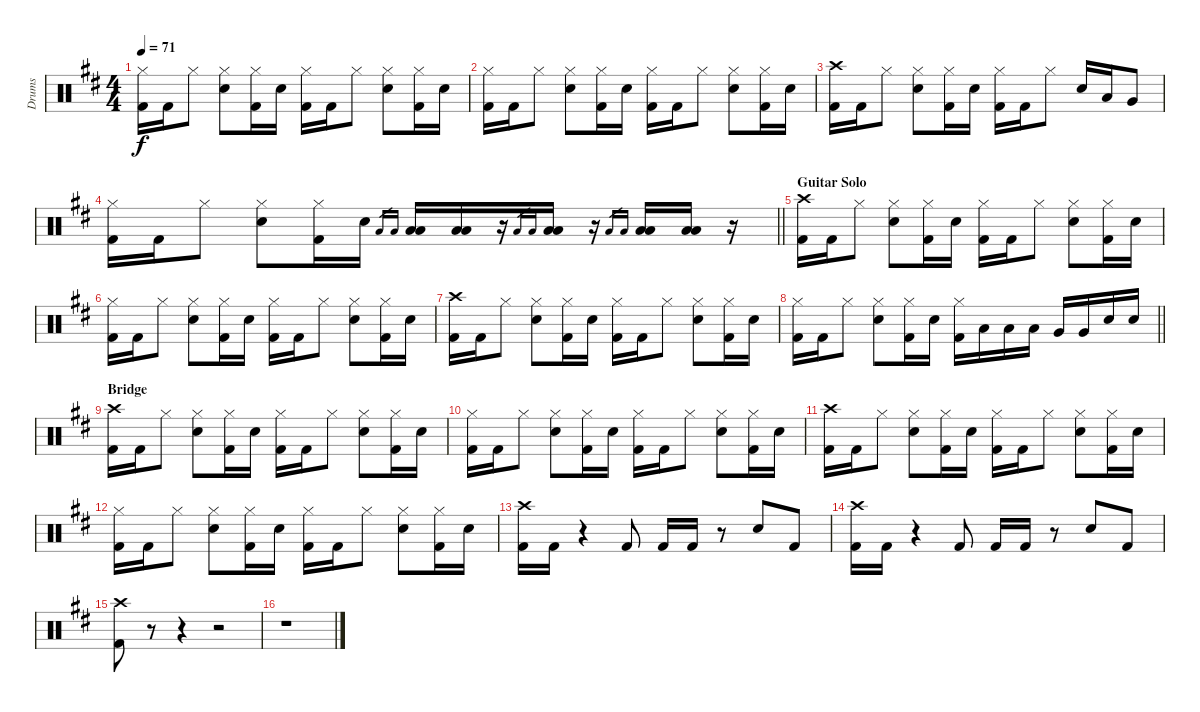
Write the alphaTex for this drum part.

\track ("Drums" "Drums") {instrument percussion}
\staff {score}
\articulation defaults
\ts (4 4)
\tempo 71
\clef neutral
\ks bminor
("Hi-Hat (closed)" "Kick (hit) 2").16{dy f} "Kick (hit) 2".16 "Hi-Hat (closed)".8 ("Hi-Hat (closed)" "Snare (hit) 2").8 ("Hi-Hat (closed)" "Kick (hit) 2").16 "Snare (hit) 2".16 ("Hi-Hat (closed)" "Kick (hit) 2").16 "Kick (hit) 2".16 "Hi-Hat (closed)".8 ("Hi-Hat (closed)" "Snare (hit) 2").8 ("Hi-Hat (closed)" "Kick (hit) 2").16 "Snare (hit) 2".16 |
("Hi-Hat (closed)" "Kick (hit) 2").16 "Kick (hit) 2".16 "Hi-Hat (closed)".8 ("Hi-Hat (closed)" "Snare (hit) 2").8 ("Hi-Hat (closed)" "Kick (hit) 2").16 "Snare (hit) 2".16 ("Hi-Hat (closed)" "Kick (hit) 2").16 "Kick (hit) 2".16 "Hi-Hat (closed)".8 ("Hi-Hat (closed)" "Snare (hit) 2").8 ("Hi-Hat (closed)" "Kick (hit) 2").16 "Snare (hit) 2".16 |
("Crash high (hit)" "Kick (hit) 2").16 "Kick (hit) 2".16 "Hi-Hat (closed)".8 ("Hi-Hat (closed)" "Snare (hit) 2").8 ("Hi-Hat (closed)" "Kick (hit) 2").16 "Snare (hit) 2".16 ("Hi-Hat (closed)" "Kick (hit) 2").16 "Kick (hit) 2".16 "Hi-Hat (closed)".8 "Snare (hit) 2".16 "Low Tom (hit)".16 "Very Low Tom (hit)".8 |
\barLineRight lightlight
("Hi-Hat (closed)" "Kick (hit) 2").16 "Kick (hit) 2".16 "Hi-Hat (closed)".8 ("Hi-Hat (closed)" "Snare (hit) 2").8 ("Hi-Hat (closed)" "Kick (hit) 2").16 "Snare (hit) 2".16 "Low Tom (hit)".16{gr} "Low Tom (hit)".16{gr} ("Low Tom (hit)" "Low Tom (hit)").16 ("Low Tom (hit)" "Low Tom (hit)").16 r.16 "Low Tom (hit)".16{gr} "Low Tom (hit)".16{gr} ("Low Tom (hit)" "Low Tom (hit)").16 r.16 "Low Tom (hit)".16{gr} "Low Tom (hit)".16{gr} ("Low Tom (hit)" "Low Tom (hit)").16 ("Low Tom (hit)" "Low Tom (hit)").16 r.16 |
\section ("" "Guitar Solo")
("Crash high (hit)" "Kick (hit) 2").16 "Kick (hit) 2".16 "Hi-Hat (closed)".8 ("Hi-Hat (closed)" "Snare (hit) 2").8 ("Hi-Hat (closed)" "Kick (hit) 2").16 "Snare (hit) 2".16 ("Hi-Hat (closed)" "Kick (hit) 2").16 "Kick (hit) 2".16 "Hi-Hat (closed)".8 ("Hi-Hat (closed)" "Snare (hit) 2").8 ("Hi-Hat (closed)" "Kick (hit) 2").16 "Snare (hit) 2".16 |
("Hi-Hat (closed)" "Kick (hit) 2").16 "Kick (hit) 2".16 "Hi-Hat (closed)".8 ("Hi-Hat (closed)" "Snare (hit) 2").8 ("Hi-Hat (closed)" "Kick (hit) 2").16 "Snare (hit) 2".16 ("Hi-Hat (closed)" "Kick (hit) 2").16 "Kick (hit) 2".16 "Hi-Hat (closed)".8 ("Hi-Hat (closed)" "Snare (hit) 2").8 ("Hi-Hat (closed)" "Kick (hit) 2").16 "Snare (hit) 2".16 |
("Crash high (hit)" "Kick (hit) 2").16 "Kick (hit) 2".16 "Hi-Hat (closed)".8 ("Hi-Hat (closed)" "Snare (hit) 2").8 ("Hi-Hat (closed)" "Kick (hit) 2").16 "Snare (hit) 2".16 ("Hi-Hat (closed)" "Kick (hit) 2").16 "Kick (hit) 2".16 "Hi-Hat (closed)".8 ("Hi-Hat (closed)" "Snare (hit) 2").8 ("Hi-Hat (closed)" "Kick (hit) 2").16 "Snare (hit) 2".16 |
\barLineRight lightlight
("Hi-Hat (closed)" "Kick (hit) 2").16 "Kick (hit) 2".16 "Hi-Hat (closed)".8 ("Hi-Hat (closed)" "Snare (hit) 2").8 ("Hi-Hat (closed)" "Kick (hit) 2").16 "Snare (hit) 2".16 ("Hi-Hat (closed)" "Kick (hit) 2").16 "Low Tom (hit)".16 "Low Tom (hit)".16 "Low Tom (hit)".16 "Very Low Tom (hit)".16 "Very Low Tom (hit)".16 "Snare (hit) 2".16 "Snare (hit) 2".16 |
\section ("" "Bridge")
("Crash high (hit)" "Kick (hit) 2").16 "Kick (hit) 2".16 "Hi-Hat (closed)".8 ("Hi-Hat (closed)" "Snare (hit) 2").8 ("Hi-Hat (closed)" "Kick (hit) 2").16 "Snare (hit) 2".16 ("Hi-Hat (closed)" "Kick (hit) 2").16 "Kick (hit) 2".16 "Hi-Hat (closed)".8 ("Hi-Hat (closed)" "Snare (hit) 2").8 ("Hi-Hat (closed)" "Kick (hit) 2").16 "Snare (hit) 2".16 |
("Hi-Hat (closed)" "Kick (hit) 2").16 "Kick (hit) 2".16 "Hi-Hat (closed)".8 ("Hi-Hat (closed)" "Snare (hit) 2").8 ("Hi-Hat (closed)" "Kick (hit) 2").16 "Snare (hit) 2".16 ("Hi-Hat (closed)" "Kick (hit) 2").16 "Kick (hit) 2".16 "Hi-Hat (closed)".8 ("Hi-Hat (closed)" "Snare (hit) 2").8 ("Hi-Hat (closed)" "Kick (hit) 2").16 "Snare (hit) 2".16 |
("Crash high (hit)" "Kick (hit) 2").16 "Kick (hit) 2".16 "Hi-Hat (closed)".8 ("Hi-Hat (closed)" "Snare (hit) 2").8 ("Hi-Hat (closed)" "Kick (hit) 2").16 "Snare (hit) 2".16 ("Hi-Hat (closed)" "Kick (hit) 2").16 "Kick (hit) 2".16 "Hi-Hat (closed)".8 ("Hi-Hat (closed)" "Snare (hit) 2").8 ("Hi-Hat (closed)" "Kick (hit) 2").16 "Snare (hit) 2".16 |
("Hi-Hat (closed)" "Kick (hit) 2").16 "Kick (hit) 2".16 "Hi-Hat (closed)".8 ("Hi-Hat (closed)" "Snare (hit) 2").8 ("Hi-Hat (closed)" "Kick (hit) 2").16 "Snare (hit) 2".16 ("Hi-Hat (closed)" "Kick (hit) 2").16 "Kick (hit) 2".16 "Hi-Hat (closed)".8 ("Hi-Hat (closed)" "Snare (hit) 2").8 ("Hi-Hat (closed)" "Kick (hit) 2").16 "Snare (hit) 2".16 |
("Crash high (hit)" "Kick (hit) 2").16 "Kick (hit) 2".16 r.4 "Kick (hit) 2".8 "Kick (hit) 2".16 "Kick (hit) 2".16 r.8 "Snare (hit) 2".8 "Kick (hit) 2".8 |
("Crash high (hit)" "Kick (hit) 2").16 "Kick (hit) 2".16 r.4 "Kick (hit) 2".8 "Kick (hit) 2".16 "Kick (hit) 2".16 r.8 "Snare (hit) 2".8 "Kick (hit) 2".8 |
("Crash high (hit)" "Kick (hit) 2").8 r.8 r.4 r.2 |
r.1
